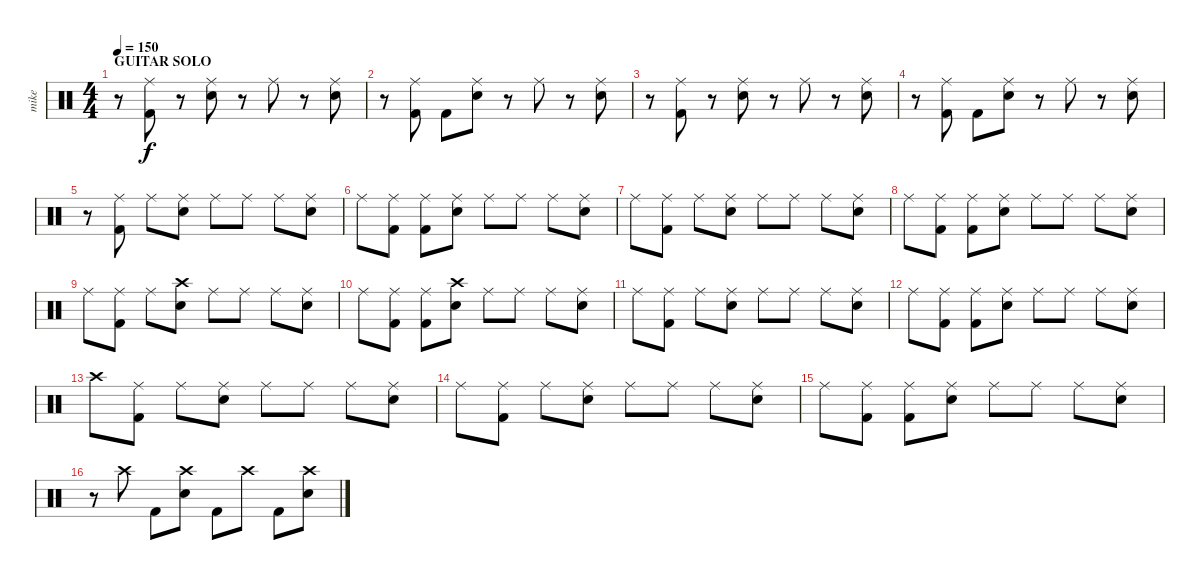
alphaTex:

\track ("mike" "mike") {instrument percussion}
\staff {score}
\articulation defaults
\ts (4 4)
\section ("" "GUITAR SOLO")
\tempo 150
\clef neutral
\ks c
r.8{dy f} ("Ride (middle)" "Kick (hit) 2").8 r.8 ("Ride (middle)" "Electric Snare (hit)").8 r.8 "Ride (middle)".8 r.8 ("Ride (middle)" "Electric Snare (hit)").8 |
r.8 ("Ride (middle)" "Kick (hit) 2").8 "Kick (hit) 2".8 ("Ride (middle)" "Electric Snare (hit)").8 r.8 "Ride (middle)".8 r.8 ("Ride (middle)" "Electric Snare (hit)").8 |
r.8 ("Ride (middle)" "Kick (hit) 2").8 r.8 ("Ride (middle)" "Electric Snare (hit)").8 r.8 "Ride (middle)".8 r.8 ("Ride (middle)" "Electric Snare (hit)").8 |
r.8 ("Ride (middle)" "Kick (hit) 2").8 "Kick (hit) 2".8 ("Ride (middle)" "Electric Snare (hit)").8 r.8 "Ride (middle)".8 r.8 ("Ride (middle)" "Electric Snare (hit)").8 |
r.8 ("Ride (middle)" "Kick (hit) 2").8 "Ride (middle)".8 ("Ride (middle)" "Electric Snare (hit)").8 "Ride (middle)".8 "Ride (middle)".8 "Ride (middle)".8 ("Ride (middle)" "Electric Snare (hit)").8 |
"Ride (middle)".8 ("Ride (middle)" "Kick (hit) 2").8 ("Ride (middle)" "Kick (hit) 2").8 ("Ride (middle)" "Electric Snare (hit)").8 "Ride (middle)".8 "Ride (middle)".8 "Ride (middle)".8 ("Ride (middle)" "Electric Snare (hit)").8 |
"Ride (middle)".8 ("Ride (middle)" "Kick (hit) 2").8 "Ride (middle)".8 ("Ride (middle)" "Electric Snare (hit)").8 "Ride (middle)".8 "Ride (middle)".8 "Ride (middle)".8 ("Ride (middle)" "Electric Snare (hit)").8 |
"Ride (middle)".8 ("Ride (middle)" "Kick (hit) 2").8 ("Ride (middle)" "Kick (hit) 2").8 ("Ride (middle)" "Electric Snare (hit)").8 "Ride (middle)".8 "Ride (middle)".8 "Ride (middle)".8 ("Ride (middle)" "Electric Snare (hit)").8 |
"Ride (middle)".8 ("Ride (middle)" "Kick (hit) 2").8 "Ride (middle)".8 ("Crash high (hit)" "Electric Snare (hit)").8 "Ride (middle)".8 "Ride (middle)".8 "Ride (middle)".8 ("Ride (middle)" "Electric Snare (hit)").8 |
"Ride (middle)".8 ("Ride (middle)" "Kick (hit) 2").8 ("Ride (middle)" "Kick (hit) 2").8 ("Crash high (hit)" "Electric Snare (hit)").8 "Ride (middle)".8 "Ride (middle)".8 "Ride (middle)".8 ("Ride (middle)" "Electric Snare (hit)").8 |
"Ride (middle)".8 ("Ride (middle)" "Kick (hit) 2").8 "Ride (middle)".8 ("Ride (middle)" "Electric Snare (hit)").8 "Ride (middle)".8 "Ride (middle)".8 "Ride (middle)".8 ("Ride (middle)" "Electric Snare (hit)").8 |
"Ride (middle)".8 ("Ride (middle)" "Kick (hit) 2").8 ("Ride (middle)" "Kick (hit) 2").8 ("Ride (middle)" "Electric Snare (hit)").8 "Ride (middle)".8 "Ride (middle)".8 "Ride (middle)".8 ("Ride (middle)" "Electric Snare (hit)").8 |
"Crash high (hit)".8 ("Ride (middle)" "Kick (hit) 2").8 "Ride (middle)".8 ("Ride (middle)" "Electric Snare (hit)").8 "Ride (middle)".8 "Ride (middle)".8 "Ride (middle)".8 ("Ride (middle)" "Electric Snare (hit)").8 |
"Ride (middle)".8 ("Ride (middle)" "Kick (hit) 2").8 "Ride (middle)".8 ("Ride (middle)" "Electric Snare (hit)").8 "Ride (middle)".8 "Ride (middle)".8 "Ride (middle)".8 ("Ride (middle)" "Electric Snare (hit)").8 |
"Ride (middle)".8 ("Ride (middle)" "Kick (hit) 2").8 ("Ride (middle)" "Kick (hit) 2").8 ("Ride (middle)" "Electric Snare (hit)").8 "Ride (middle)".8 "Ride (middle)".8 "Ride (middle)".8 ("Ride (middle)" "Electric Snare (hit)").8 |
r.8 "Crash high (hit)".8 "Kick (hit) 2".8 ("Crash high (hit)" "Electric Snare (hit)").8 "Kick (hit) 2".8 "Crash high (hit)".8 "Kick (hit) 2".8 ("Crash high (hit)" "Electric Snare (hit)").8
